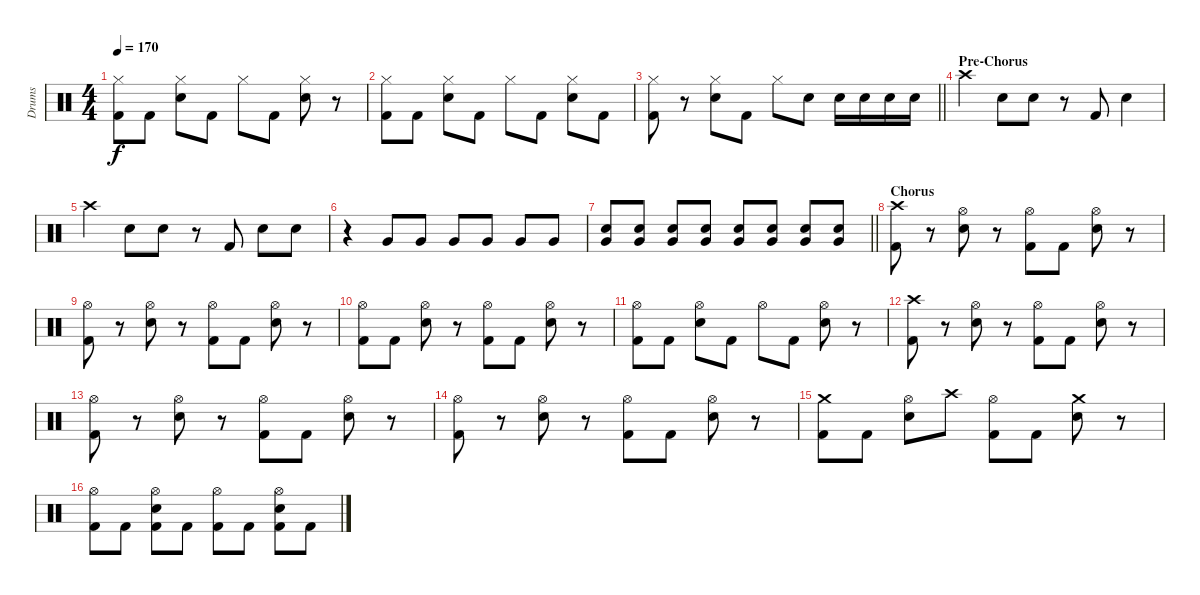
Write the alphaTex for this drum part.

\track ("Drums" "Drums") {instrument percussion}
\staff {score}
\articulation defaults
\ts (4 4)
\tempo 170
\clef neutral
\ks c
("Hi-Hat (closed)" "Kick (hit) 2").8{dy f} "Kick (hit) 2".8 ("Hi-Hat (closed)" "Electric Snare (hit)").8 "Kick (hit) 2".8 "Hi-Hat (closed)".8 "Kick (hit) 2".8 ("Hi-Hat (closed)" "Electric Snare (hit)").8 r.8 |
("Hi-Hat (closed)" "Kick (hit) 2").8 "Kick (hit) 2".8 ("Hi-Hat (closed)" "Electric Snare (hit)").8 "Kick (hit) 2".8 "Hi-Hat (closed)".8 "Kick (hit) 2".8 ("Hi-Hat (closed)" "Electric Snare (hit)").8 "Kick (hit) 2".8 |
\barLineRight lightlight
("Hi-Hat (closed)" "Kick (hit) 2").8 r.8 ("Hi-Hat (closed)" "Electric Snare (hit)").8 "Kick (hit) 2".8 "Hi-Hat (closed)".8 "Electric Snare (hit)".8 "Electric Snare (hit)".16 "Electric Snare (hit)".16 "Electric Snare (hit)".16 "Electric Snare (hit)".16 |
\section ("" "Pre-Chorus")
"Crash high (hit)".4 "Electric Snare (hit)".8 "Electric Snare (hit)".8 r.8 "Kick (hit) 2".8 "Electric Snare (hit)".4 |
"Crash high (hit)".4 "Electric Snare (hit)".8 "Electric Snare (hit)".8 r.8 "Kick (hit) 2".8 "Electric Snare (hit)".8 "Electric Snare (hit)".8 |
r.4 "Very Low Tom (hit)".8 "Very Low Tom (hit)".8 "Very Low Tom (hit)".8 "Very Low Tom (hit)".8 "Very Low Tom (hit)".8 "Very Low Tom (hit)".8 |
\barLineRight lightlight
("Electric Snare (hit)" "Very Low Tom (hit)").8 ("Electric Snare (hit)" "Very Low Tom (hit)").8 ("Electric Snare (hit)" "Very Low Tom (hit)").8 ("Electric Snare (hit)" "Very Low Tom (hit)").8 ("Electric Snare (hit)" "Very Low Tom (hit)").8 ("Electric Snare (hit)" "Very Low Tom (hit)").8 ("Electric Snare (hit)" "Very Low Tom (hit)").8 ("Electric Snare (hit)" "Very Low Tom (hit)").8 |
\section ("" "Chorus")
("Crash high (hit)" "Kick (hit) 2").8 r.8 ("Hi-Hat (open)" "Electric Snare (hit)").8 r.8 ("Hi-Hat (open)" "Kick (hit) 2").8 "Kick (hit) 2".8 ("Hi-Hat (open)" "Electric Snare (hit)").8 r.8 |
("Hi-Hat (open)" "Kick (hit) 2").8 r.8 ("Hi-Hat (open)" "Electric Snare (hit)").8 r.8 ("Hi-Hat (open)" "Kick (hit) 2").8 "Kick (hit) 2".8 ("Hi-Hat (open)" "Electric Snare (hit)").8 r.8 |
("Hi-Hat (open)" "Kick (hit) 2").8 "Kick (hit) 2".8 ("Hi-Hat (open)" "Electric Snare (hit)").8 r.8 ("Hi-Hat (open)" "Kick (hit) 2").8 "Kick (hit) 2".8 ("Hi-Hat (open)" "Electric Snare (hit)").8 r.8 |
("Hi-Hat (open)" "Kick (hit) 2").8 "Kick (hit) 2".8 ("Hi-Hat (open)" "Electric Snare (hit)").8 "Kick (hit) 2".8 "Hi-Hat (open)".8 "Kick (hit) 2".8 ("Hi-Hat (open)" "Electric Snare (hit)").8 r.8 |
("Crash high (hit)" "Kick (hit) 2").8 r.8 ("Hi-Hat (open)" "Electric Snare (hit)").8 r.8 ("Hi-Hat (open)" "Kick (hit) 2").8 "Kick (hit) 2".8 ("Hi-Hat (open)" "Electric Snare (hit)").8 r.8 |
("Hi-Hat (open)" "Kick (hit) 2").8 r.8 ("Hi-Hat (open)" "Electric Snare (hit)").8 r.8 ("Hi-Hat (open)" "Kick (hit) 2").8 "Kick (hit) 2".8 ("Hi-Hat (open)" "Electric Snare (hit)").8 r.8 |
("Hi-Hat (open)" "Kick (hit) 2").8 r.8 ("Hi-Hat (open)" "Electric Snare (hit)").8 r.8 ("Hi-Hat (open)" "Kick (hit) 2").8 "Kick (hit) 2".8 ("Hi-Hat (open)" "Electric Snare (hit)").8 r.8 |
("Crash medium (hit)" "Kick (hit) 2").8 "Kick (hit) 2".8 ("Hi-Hat (open)" "Electric Snare (hit)").8 "Crash high (hit)".8 ("Hi-Hat (open)" "Kick (hit) 2").8 "Kick (hit) 2".8 ("Crash medium (hit)" "Electric Snare (hit)").8 r.8 |
("Hi-Hat (open)" "Kick (hit) 2").8 "Kick (hit) 2".8 ("Hi-Hat (open)" "Electric Snare (hit)" "Kick (hit) 2").8 "Kick (hit) 2".8 ("Hi-Hat (open)" "Kick (hit) 2").8 "Kick (hit) 2".8 ("Hi-Hat (open)" "Electric Snare (hit)" "Kick (hit) 2").8 "Kick (hit) 2".8
